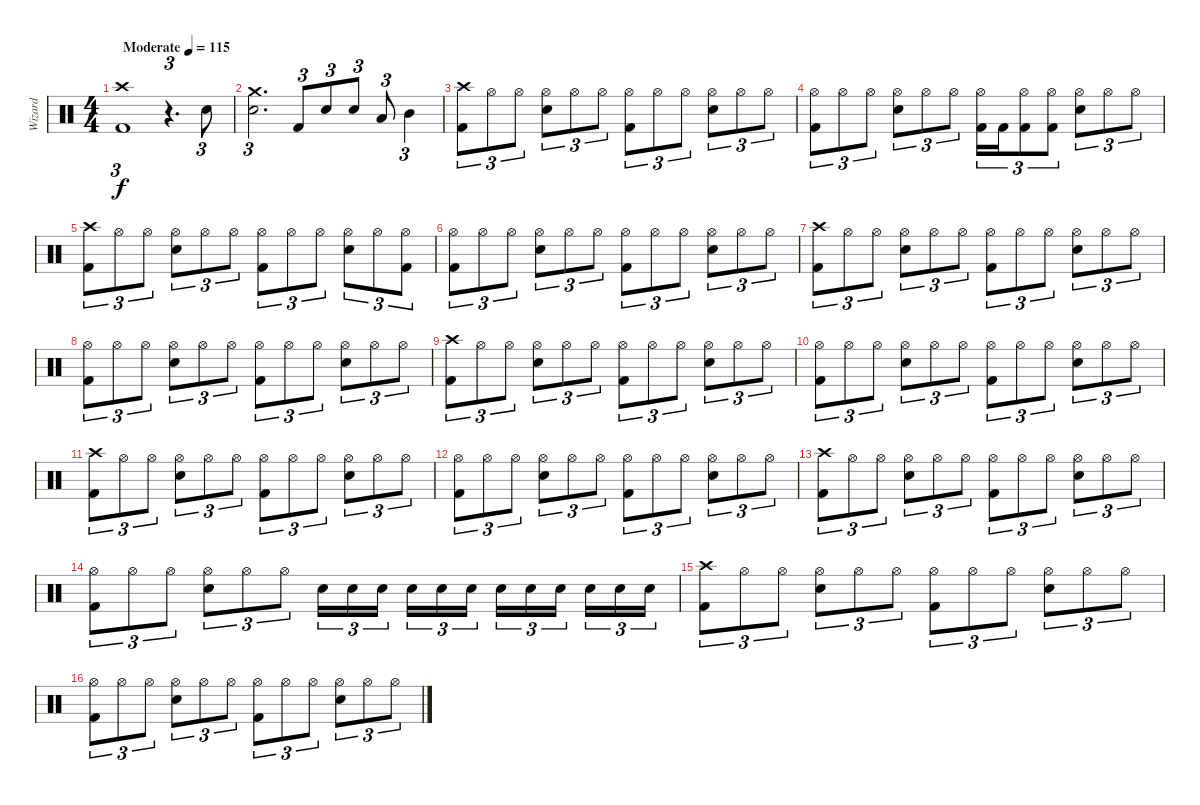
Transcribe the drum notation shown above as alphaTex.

\track ("Wizard" "Wizard") {instrument percussion}
\staff {score}
\articulation defaults
\ts (4 4)
\tempo (115 "Moderate")
\clef neutral
\ks c
("Crash high (hit)" "Kick (hit) 2").1{tu (3 2) dy f} r.4{d tu (3 2)} "Snare (hit) 2".8{tu (3 2)} |
("Crash medium (hit)" "Snare (hit) 2").2{d tu (3 2)} "Kick (hit) 2".8{tu (3 2)} "Snare (hit) 2".8{tu (3 2)} "Snare (hit) 2".8{tu (3 2)} "Low Tom (hit)".8{tu (3 2)} "Mid Tom (hit)".4{tu (3 2)} |
("Crash high (hit)" "Kick (hit) 2").8{tu (3 2)} "Hi-Hat (open)".8{tu (3 2)} "Hi-Hat (open)".8{tu (3 2)} ("Hi-Hat (open)" "Snare (hit) 2").8{tu (3 2)} "Hi-Hat (open)".8{tu (3 2)} "Hi-Hat (open)".8{tu (3 2)} ("Hi-Hat (open)" "Kick (hit) 2").8{tu (3 2)} "Hi-Hat (open)".8{tu (3 2)} "Hi-Hat (open)".8{tu (3 2)} ("Hi-Hat (open)" "Snare (hit) 2").8{tu (3 2)} "Hi-Hat (open)".8{tu (3 2)} "Hi-Hat (open)".8{tu (3 2)} |
("Hi-Hat (open)" "Kick (hit) 2").8{tu (3 2)} "Hi-Hat (open)".8{tu (3 2)} "Hi-Hat (open)".8{tu (3 2)} ("Hi-Hat (open)" "Snare (hit) 2").8{tu (3 2)} "Hi-Hat (open)".8{tu (3 2)} "Hi-Hat (open)".8{tu (3 2)} ("Hi-Hat (open)" "Kick (hit) 2").16{tu (3 2)} "Kick (hit) 2".16{tu (3 2)} ("Hi-Hat (open)" "Kick (hit) 2").8{tu (3 2)} ("Hi-Hat (open)" "Kick (hit) 2").8{tu (3 2)} ("Hi-Hat (open)" "Snare (hit) 2").8{tu (3 2)} "Hi-Hat (open)".8{tu (3 2)} "Hi-Hat (open)".8{tu (3 2)} |
("Crash high (hit)" "Kick (hit) 2").8{tu (3 2)} "Hi-Hat (open)".8{tu (3 2)} "Hi-Hat (open)".8{tu (3 2)} ("Hi-Hat (open)" "Snare (hit) 2").8{tu (3 2)} "Hi-Hat (open)".8{tu (3 2)} "Hi-Hat (open)".8{tu (3 2)} ("Hi-Hat (open)" "Kick (hit) 2").8{tu (3 2)} "Hi-Hat (open)".8{tu (3 2)} "Hi-Hat (open)".8{tu (3 2)} ("Hi-Hat (open)" "Snare (hit) 2").8{tu (3 2)} "Hi-Hat (open)".8{tu (3 2)} ("Hi-Hat (open)" "Kick (hit) 2").8{tu (3 2)} |
("Hi-Hat (open)" "Kick (hit) 2").8{tu (3 2)} "Hi-Hat (open)".8{tu (3 2)} "Hi-Hat (open)".8{tu (3 2)} ("Hi-Hat (open)" "Snare (hit) 2").8{tu (3 2)} "Hi-Hat (open)".8{tu (3 2)} "Hi-Hat (open)".8{tu (3 2)} ("Hi-Hat (open)" "Kick (hit) 2").8{tu (3 2)} "Hi-Hat (open)".8{tu (3 2)} "Hi-Hat (open)".8{tu (3 2)} ("Hi-Hat (open)" "Snare (hit) 2").8{tu (3 2)} "Hi-Hat (open)".8{tu (3 2)} "Hi-Hat (open)".8{tu (3 2)} |
("Crash high (hit)" "Kick (hit) 2").8{tu (3 2)} "Hi-Hat (open)".8{tu (3 2)} "Hi-Hat (open)".8{tu (3 2)} ("Hi-Hat (open)" "Snare (hit) 2").8{tu (3 2)} "Hi-Hat (open)".8{tu (3 2)} "Hi-Hat (open)".8{tu (3 2)} ("Hi-Hat (open)" "Kick (hit) 2").8{tu (3 2)} "Hi-Hat (open)".8{tu (3 2)} "Hi-Hat (open)".8{tu (3 2)} ("Hi-Hat (open)" "Snare (hit) 2").8{tu (3 2)} "Hi-Hat (open)".8{tu (3 2)} "Hi-Hat (open)".8{tu (3 2)} |
("Hi-Hat (open)" "Kick (hit) 2").8{tu (3 2)} "Hi-Hat (open)".8{tu (3 2)} "Hi-Hat (open)".8{tu (3 2)} ("Hi-Hat (open)" "Snare (hit) 2").8{tu (3 2)} "Hi-Hat (open)".8{tu (3 2)} "Hi-Hat (open)".8{tu (3 2)} ("Hi-Hat (open)" "Kick (hit) 2").8{tu (3 2)} "Hi-Hat (open)".8{tu (3 2)} "Hi-Hat (open)".8{tu (3 2)} ("Hi-Hat (open)" "Snare (hit) 2").8{tu (3 2)} "Hi-Hat (open)".8{tu (3 2)} "Hi-Hat (open)".8{tu (3 2)} |
("Crash high (hit)" "Kick (hit) 2").8{tu (3 2)} "Hi-Hat (open)".8{tu (3 2)} "Hi-Hat (open)".8{tu (3 2)} ("Hi-Hat (open)" "Snare (hit) 2").8{tu (3 2)} "Hi-Hat (open)".8{tu (3 2)} "Hi-Hat (open)".8{tu (3 2)} ("Hi-Hat (open)" "Kick (hit) 2").8{tu (3 2)} "Hi-Hat (open)".8{tu (3 2)} "Hi-Hat (open)".8{tu (3 2)} ("Hi-Hat (open)" "Snare (hit) 2").8{tu (3 2)} "Hi-Hat (open)".8{tu (3 2)} "Hi-Hat (open)".8{tu (3 2)} |
("Hi-Hat (open)" "Kick (hit) 2").8{tu (3 2)} "Hi-Hat (open)".8{tu (3 2)} "Hi-Hat (open)".8{tu (3 2)} ("Hi-Hat (open)" "Snare (hit) 2").8{tu (3 2)} "Hi-Hat (open)".8{tu (3 2)} "Hi-Hat (open)".8{tu (3 2)} ("Hi-Hat (open)" "Kick (hit) 2").8{tu (3 2)} "Hi-Hat (open)".8{tu (3 2)} "Hi-Hat (open)".8{tu (3 2)} ("Hi-Hat (open)" "Snare (hit) 2").8{tu (3 2)} "Hi-Hat (open)".8{tu (3 2)} "Hi-Hat (open)".8{tu (3 2)} |
("Crash high (hit)" "Kick (hit) 2").8{tu (3 2)} "Hi-Hat (open)".8{tu (3 2)} "Hi-Hat (open)".8{tu (3 2)} ("Hi-Hat (open)" "Snare (hit) 2").8{tu (3 2)} "Hi-Hat (open)".8{tu (3 2)} "Hi-Hat (open)".8{tu (3 2)} ("Hi-Hat (open)" "Kick (hit) 2").8{tu (3 2)} "Hi-Hat (open)".8{tu (3 2)} "Hi-Hat (open)".8{tu (3 2)} ("Hi-Hat (open)" "Snare (hit) 2").8{tu (3 2)} "Hi-Hat (open)".8{tu (3 2)} "Hi-Hat (open)".8{tu (3 2)} |
("Hi-Hat (open)" "Kick (hit) 2").8{tu (3 2)} "Hi-Hat (open)".8{tu (3 2)} "Hi-Hat (open)".8{tu (3 2)} ("Hi-Hat (open)" "Snare (hit) 2").8{tu (3 2)} "Hi-Hat (open)".8{tu (3 2)} "Hi-Hat (open)".8{tu (3 2)} ("Hi-Hat (open)" "Kick (hit) 2").8{tu (3 2)} "Hi-Hat (open)".8{tu (3 2)} "Hi-Hat (open)".8{tu (3 2)} ("Hi-Hat (open)" "Snare (hit) 2").8{tu (3 2)} "Hi-Hat (open)".8{tu (3 2)} "Hi-Hat (open)".8{tu (3 2)} |
("Crash high (hit)" "Kick (hit) 2").8{tu (3 2)} "Hi-Hat (open)".8{tu (3 2)} "Hi-Hat (open)".8{tu (3 2)} ("Hi-Hat (open)" "Snare (hit) 2").8{tu (3 2)} "Hi-Hat (open)".8{tu (3 2)} "Hi-Hat (open)".8{tu (3 2)} ("Hi-Hat (open)" "Kick (hit) 2").8{tu (3 2)} "Hi-Hat (open)".8{tu (3 2)} "Hi-Hat (open)".8{tu (3 2)} ("Hi-Hat (open)" "Snare (hit) 2").8{tu (3 2)} "Hi-Hat (open)".8{tu (3 2)} "Hi-Hat (open)".8{tu (3 2)} |
("Hi-Hat (open)" "Kick (hit) 2").8{tu (3 2)} "Hi-Hat (open)".8{tu (3 2)} "Hi-Hat (open)".8{tu (3 2)} ("Hi-Hat (open)" "Snare (hit) 2").8{tu (3 2)} "Hi-Hat (open)".8{tu (3 2)} "Hi-Hat (open)".8{tu (3 2)} "Snare (hit) 2".16{tu (3 2)} "Snare (hit) 2".16{tu (3 2)} "Snare (hit) 2".16{tu (3 2) beam splitsecondary} "Snare (hit) 2".16{tu (3 2)} "Snare (hit) 2".16{tu (3 2)} "Snare (hit) 2".16{tu (3 2)} "Snare (hit) 2".16{tu (3 2)} "Snare (hit) 2".16{tu (3 2)} "Snare (hit) 2".16{tu (3 2) beam splitsecondary} "Snare (hit) 2".16{tu (3 2)} "Snare (hit) 2".16{tu (3 2)} "Snare (hit) 2".16{tu (3 2)} |
("Crash high (hit)" "Kick (hit) 2").8{tu (3 2)} "Hi-Hat (open)".8{tu (3 2)} "Hi-Hat (open)".8{tu (3 2)} ("Hi-Hat (open)" "Snare (hit) 2").8{tu (3 2)} "Hi-Hat (open)".8{tu (3 2)} "Hi-Hat (open)".8{tu (3 2)} ("Hi-Hat (open)" "Kick (hit) 2").8{tu (3 2)} "Hi-Hat (open)".8{tu (3 2)} "Hi-Hat (open)".8{tu (3 2)} ("Hi-Hat (open)" "Snare (hit) 2").8{tu (3 2)} "Hi-Hat (open)".8{tu (3 2)} "Hi-Hat (open)".8{tu (3 2)} |
("Hi-Hat (open)" "Kick (hit) 2").8{tu (3 2)} "Hi-Hat (open)".8{tu (3 2)} "Hi-Hat (open)".8{tu (3 2)} ("Hi-Hat (open)" "Snare (hit) 2").8{tu (3 2)} "Hi-Hat (open)".8{tu (3 2)} "Hi-Hat (open)".8{tu (3 2)} ("Hi-Hat (open)" "Kick (hit) 2").8{tu (3 2)} "Hi-Hat (open)".8{tu (3 2)} "Hi-Hat (open)".8{tu (3 2)} ("Hi-Hat (open)" "Snare (hit) 2").8{tu (3 2)} "Hi-Hat (open)".8{tu (3 2)} "Hi-Hat (open)".8{tu (3 2)}
